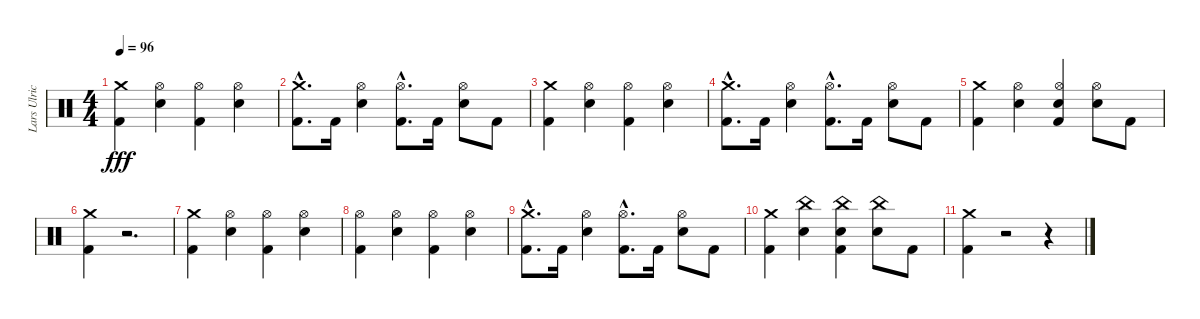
\track ("Lars Ulrich" "Lars Ulric") {instrument percussion}
\staff {score}
\articulation defaults
\ts (4 4)
\tempo 96
\clef neutral
\ks c
("Kick (hit) 2" "Crash medium (hit)").4{dy fff} ("Hi-Hat (open)" "Snare (hit) 2").4 ("Hi-Hat (open)" "Kick (hit) 2").4 ("Hi-Hat (open)" "Snare (hit) 2").4 |
("Kick (hit) 2"{hac} "Crash medium (hit)").8{d} "Kick (hit) 2".16 ("Snare (hit) 2" "Hi-Hat (open)").4 ("Kick (hit) 2"{hac} "Hi-Hat (open)").8{d} "Kick (hit) 2".16 ("Snare (hit) 2" "Hi-Hat (open)").8 "Kick (hit) 2".8 |
("Kick (hit) 2" "Crash medium (hit)").4 ("Hi-Hat (open)" "Snare (hit) 2").4 ("Hi-Hat (open)" "Kick (hit) 2").4 ("Hi-Hat (open)" "Snare (hit) 2").4 |
("Kick (hit) 2"{hac} "Crash medium (hit)").8{d} "Kick (hit) 2".16 ("Snare (hit) 2" "Hi-Hat (open)").4 ("Kick (hit) 2"{hac} "Hi-Hat (open)").8{d} "Kick (hit) 2".16 ("Snare (hit) 2" "Hi-Hat (open)").8 "Kick (hit) 2".8 |
("Kick (hit) 2" "Crash medium (hit)").4 ("Hi-Hat (open)" "Snare (hit) 2").4 ("Hi-Hat (open)" "Snare (hit) 2" "Kick (hit) 2").4 ("Hi-Hat (open)" "Snare (hit) 2").8 "Kick (hit) 2".8 |
("Kick (hit) 2" "Crash medium (hit)").4 r.2{d} |
("Kick (hit) 2" "Crash medium (hit)").4 ("Hi-Hat (open)" "Snare (hit) 2").4 ("Hi-Hat (open)" "Kick (hit) 2").4 ("Hi-Hat (open)" "Snare (hit) 2").4 |
("Hi-Hat (open)" "Kick (hit) 2").4 ("Hi-Hat (open)" "Snare (hit) 2").4 ("Hi-Hat (open)" "Kick (hit) 2").4 ("Hi-Hat (open)" "Snare (hit) 2").4 |
("Kick (hit) 2"{hac} "Crash medium (hit)").8{d} "Kick (hit) 2".16 ("Snare (hit) 2" "Hi-Hat (open)").4 ("Kick (hit) 2"{hac} "Hi-Hat (open)").8{d} "Kick (hit) 2".16 ("Snare (hit) 2" "Hi-Hat (open)").8 "Kick (hit) 2".8 |
("Kick (hit) 2" "Crash medium (hit)").4 ("Snare (hit) 2" "China (hit)").4 ("Snare (hit) 2" "Kick (hit) 2" "China (hit)").4 ("Snare (hit) 2" "China (hit)").8 "Kick (hit) 2".8 |
("Kick (hit) 2" "Crash medium (hit)").4 r.2 r.4
